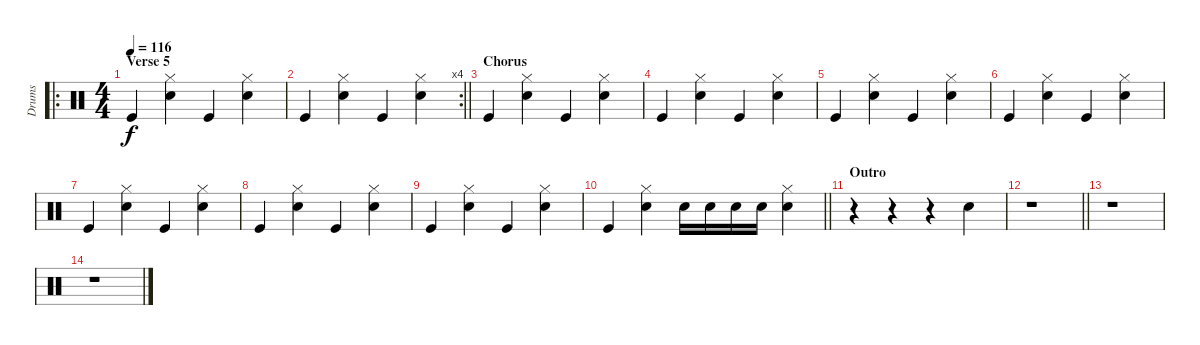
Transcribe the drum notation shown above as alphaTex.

\track ("Drums" "Drums") {instrument percussion}
\staff {score}
\articulation defaults
\ro
\ts (4 4)
\section ("" "Verse 5")
\tempo 116
\clef neutral
\ks c "Kick (hit)".4{dy f}
("Hi-Hat (closed)" "Snare (hit) 2").4 "Kick (hit)".4 ("Hi-Hat (closed)" "Snare (hit) 2").4 |
\rc 4
\barLineRight lightlight "Kick (hit)".4
("Hi-Hat (closed)" "Snare (hit) 2").4 "Kick (hit)".4 ("Hi-Hat (closed)" "Snare (hit) 2").4 |
\section ("" "Chorus")
"Kick (hit)".4 ("Hi-Hat (closed)" "Snare (hit) 2").4 "Kick (hit)".4 ("Hi-Hat (closed)" "Snare (hit) 2").4 |
"Kick (hit)".4 ("Hi-Hat (closed)" "Snare (hit) 2").4 "Kick (hit)".4 ("Hi-Hat (closed)" "Snare (hit) 2").4 |
"Kick (hit)".4 ("Hi-Hat (closed)" "Snare (hit) 2").4 "Kick (hit)".4 ("Hi-Hat (closed)" "Snare (hit) 2").4 |
"Kick (hit)".4 ("Hi-Hat (closed)" "Snare (hit) 2").4 "Kick (hit)".4 ("Hi-Hat (closed)" "Snare (hit) 2").4 |
"Kick (hit)".4 ("Hi-Hat (closed)" "Snare (hit) 2").4 "Kick (hit)".4 ("Hi-Hat (closed)" "Snare (hit) 2").4 |
"Kick (hit)".4 ("Hi-Hat (closed)" "Snare (hit) 2").4 "Kick (hit)".4 ("Hi-Hat (closed)" "Snare (hit) 2").4 |
"Kick (hit)".4 ("Hi-Hat (closed)" "Snare (hit) 2").4 "Kick (hit)".4 ("Hi-Hat (closed)" "Snare (hit) 2").4 |
\barLineRight lightlight "Kick (hit)".4
("Hi-Hat (closed)" "Snare (hit) 2").4 "Snare (hit) 2".16 "Snare (hit) 2".16 "Snare (hit) 2".16 "Snare (hit) 2".16 ("Hi-Hat (closed)" "Snare (hit) 2").4 |
\section ("" "Outro")
r.4 r.4 r.4 "Hand Clap (hit)".4 |
\barLineRight lightlight
r.1 |
r.1 |
r.1
